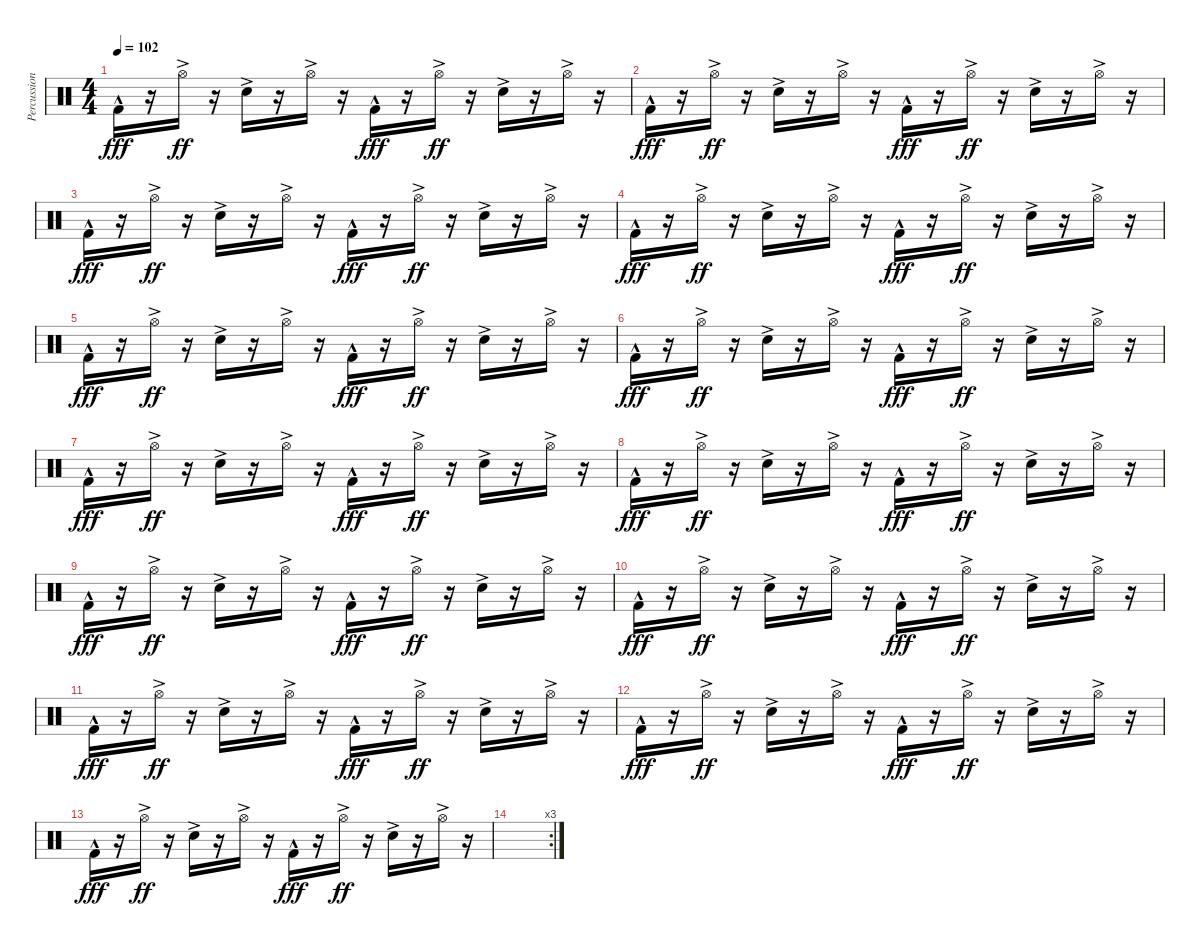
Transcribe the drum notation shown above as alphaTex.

\track ("Percussion" "Percussion") {instrument percussion}
\staff {score}
\articulation defaults
\ts (4 4)
\tempo 102
\clef neutral
\ks c "Kick (hit) 2"{hac}.16{dy fff}
r.16 "Hi-Hat (open)"{ac}.16{dy ff} r.16 "Snare (hit) 2"{ac}.16 r.16 "Hi-Hat (open)"{ac}.16 r.16 "Kick (hit) 2"{hac}.16{dy fff} r.16 "Hi-Hat (open)"{ac}.16{dy ff} r.16 "Snare (hit) 2"{ac}.16 r.16 "Hi-Hat (open)"{ac}.16 r.16 |
"Kick (hit) 2"{hac}.16{dy fff} r.16 "Hi-Hat (open)"{ac}.16{dy ff} r.16 "Snare (hit) 2"{ac}.16 r.16 "Hi-Hat (open)"{ac}.16 r.16 "Kick (hit) 2"{hac}.16{dy fff} r.16 "Hi-Hat (open)"{ac}.16{dy ff} r.16 "Snare (hit) 2"{ac}.16 r.16 "Hi-Hat (open)"{ac}.16 r.16 |
"Kick (hit) 2"{hac}.16{dy fff} r.16 "Hi-Hat (open)"{ac}.16{dy ff} r.16 "Snare (hit) 2"{ac}.16 r.16 "Hi-Hat (open)"{ac}.16 r.16 "Kick (hit) 2"{hac}.16{dy fff} r.16 "Hi-Hat (open)"{ac}.16{dy ff} r.16 "Snare (hit) 2"{ac}.16 r.16 "Hi-Hat (open)"{ac}.16 r.16 |
"Kick (hit) 2"{hac}.16{dy fff} r.16 "Hi-Hat (open)"{ac}.16{dy ff} r.16 "Snare (hit) 2"{ac}.16 r.16 "Hi-Hat (open)"{ac}.16 r.16 "Kick (hit) 2"{hac}.16{dy fff} r.16 "Hi-Hat (open)"{ac}.16{dy ff} r.16 "Snare (hit) 2"{ac}.16 r.16 "Hi-Hat (open)"{ac}.16 r.16 |
"Kick (hit) 2"{hac}.16{dy fff} r.16 "Hi-Hat (open)"{ac}.16{dy ff} r.16 "Snare (hit) 2"{ac}.16 r.16 "Hi-Hat (open)"{ac}.16 r.16 "Kick (hit) 2"{hac}.16{dy fff} r.16 "Hi-Hat (open)"{ac}.16{dy ff} r.16 "Snare (hit) 2"{ac}.16 r.16 "Hi-Hat (open)"{ac}.16 r.16 |
"Kick (hit) 2"{hac}.16{dy fff} r.16 "Hi-Hat (open)"{ac}.16{dy ff} r.16 "Snare (hit) 2"{ac}.16 r.16 "Hi-Hat (open)"{ac}.16 r.16 "Kick (hit) 2"{hac}.16{dy fff} r.16 "Hi-Hat (open)"{ac}.16{dy ff} r.16 "Snare (hit) 2"{ac}.16 r.16 "Hi-Hat (open)"{ac}.16 r.16 |
"Kick (hit) 2"{hac}.16{dy fff} r.16 "Hi-Hat (open)"{ac}.16{dy ff} r.16 "Snare (hit) 2"{ac}.16 r.16 "Hi-Hat (open)"{ac}.16 r.16 "Kick (hit) 2"{hac}.16{dy fff} r.16 "Hi-Hat (open)"{ac}.16{dy ff} r.16 "Snare (hit) 2"{ac}.16 r.16 "Hi-Hat (open)"{ac}.16 r.16 |
"Kick (hit) 2"{hac}.16{dy fff} r.16 "Hi-Hat (open)"{ac}.16{dy ff} r.16 "Snare (hit) 2"{ac}.16 r.16 "Hi-Hat (open)"{ac}.16 r.16 "Kick (hit) 2"{hac}.16{dy fff} r.16 "Hi-Hat (open)"{ac}.16{dy ff} r.16 "Snare (hit) 2"{ac}.16 r.16 "Hi-Hat (open)"{ac}.16 r.16 |
"Kick (hit) 2"{hac}.16{dy fff} r.16 "Hi-Hat (open)"{ac}.16{dy ff} r.16 "Snare (hit) 2"{ac}.16 r.16 "Hi-Hat (open)"{ac}.16 r.16 "Kick (hit) 2"{hac}.16{dy fff} r.16 "Hi-Hat (open)"{ac}.16{dy ff} r.16 "Snare (hit) 2"{ac}.16 r.16 "Hi-Hat (open)"{ac}.16 r.16 |
"Kick (hit) 2"{hac}.16{dy fff} r.16 "Hi-Hat (open)"{ac}.16{dy ff} r.16 "Snare (hit) 2"{ac}.16 r.16 "Hi-Hat (open)"{ac}.16 r.16 "Kick (hit) 2"{hac}.16{dy fff} r.16 "Hi-Hat (open)"{ac}.16{dy ff} r.16 "Snare (hit) 2"{ac}.16 r.16 "Hi-Hat (open)"{ac}.16 r.16 |
"Kick (hit) 2"{hac}.16{dy fff} r.16 "Hi-Hat (open)"{ac}.16{dy ff} r.16 "Snare (hit) 2"{ac}.16 r.16 "Hi-Hat (open)"{ac}.16 r.16 "Kick (hit) 2"{hac}.16{dy fff} r.16 "Hi-Hat (open)"{ac}.16{dy ff} r.16 "Snare (hit) 2"{ac}.16 r.16 "Hi-Hat (open)"{ac}.16 r.16 |
"Kick (hit) 2"{hac}.16{dy fff} r.16 "Hi-Hat (open)"{ac}.16{dy ff} r.16 "Snare (hit) 2"{ac}.16 r.16 "Hi-Hat (open)"{ac}.16 r.16 "Kick (hit) 2"{hac}.16{dy fff} r.16 "Hi-Hat (open)"{ac}.16{dy ff} r.16 "Snare (hit) 2"{ac}.16 r.16 "Hi-Hat (open)"{ac}.16 r.16 |
"Kick (hit) 2"{hac}.16{dy fff} r.16 "Hi-Hat (open)"{ac}.16{dy ff} r.16 "Snare (hit) 2"{ac}.16 r.16 "Hi-Hat (open)"{ac}.16 r.16 "Kick (hit) 2"{hac}.16{dy fff} r.16 "Hi-Hat (open)"{ac}.16{dy ff} r.16 "Snare (hit) 2"{ac}.16 r.16 "Hi-Hat (open)"{ac}.16 r.16 |
\rc 3
